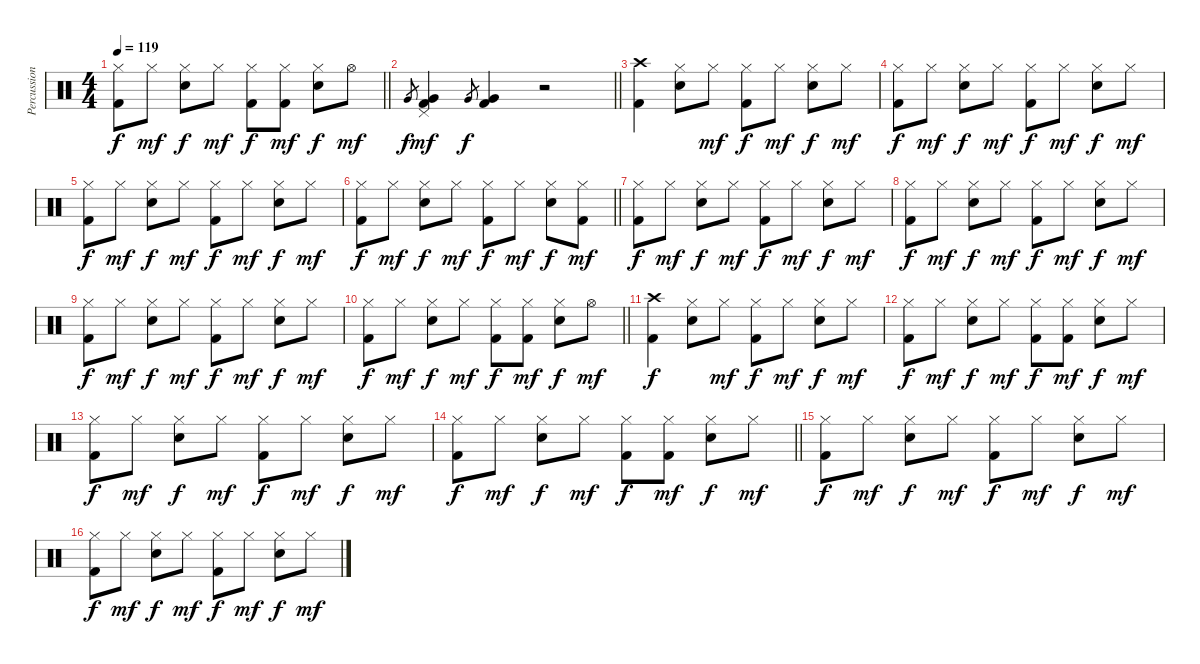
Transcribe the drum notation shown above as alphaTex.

\track ("Percussion" "Percussion") {instrument percussion}
\staff {score}
\articulation defaults
\ts (4 4)
\tempo 119
\clef neutral
\barLineRight lightlight
\ks c
("Hi-Hat (closed)" "Kick (hit) 2").8{dy f} "Hi-Hat (closed)".8{dy mf} ("Hi-Hat (closed)" "Snare (hit) 2").8{dy f} "Hi-Hat (closed)".8{dy mf} ("Hi-Hat (closed)" "Kick (hit) 2").8{dy f} ("Hi-Hat (closed)" "Kick (hit) 2").8{dy mf} ("Hi-Hat (closed)" "Snare (hit) 2").8{dy f} "Hi-Hat (open)".8{dy mf} |
\barLineRight lightlight "Very Low Tom (hit)".8{gr dy f}
("Pedal Hi-Hat (hit)" "Very Low Tom (hit)" "Kick (hit) 2").4{dy mf} "Very Low Tom (hit)".8{gr dy f} ("Very Low Tom (hit)" "Kick (hit) 2").4 r.2 |
("Crash high (hit)" "Kick (hit) 2").4 ("Hi-Hat (closed)" "Snare (hit) 2").8 "Hi-Hat (closed)".8{dy mf} ("Hi-Hat (closed)" "Kick (hit) 2").8{dy f} "Hi-Hat (closed)".8{dy mf} ("Hi-Hat (closed)" "Snare (hit) 2").8{dy f} "Hi-Hat (closed)".8{dy mf} |
("Hi-Hat (closed)" "Kick (hit) 2").8{dy f} "Hi-Hat (closed)".8{dy mf} ("Hi-Hat (closed)" "Snare (hit) 2").8{dy f} "Hi-Hat (closed)".8{dy mf} ("Hi-Hat (closed)" "Kick (hit) 2").8{dy f} "Hi-Hat (closed)".8{dy mf} ("Hi-Hat (closed)" "Snare (hit) 2").8{dy f} "Hi-Hat (closed)".8{dy mf} |
("Hi-Hat (closed)" "Kick (hit) 2").8{dy f} "Hi-Hat (closed)".8{dy mf} ("Hi-Hat (closed)" "Snare (hit) 2").8{dy f} "Hi-Hat (closed)".8{dy mf} ("Hi-Hat (closed)" "Kick (hit) 2").8{dy f} "Hi-Hat (closed)".8{dy mf} ("Hi-Hat (closed)" "Snare (hit) 2").8{dy f} "Hi-Hat (closed)".8{dy mf} |
\barLineRight lightlight
("Hi-Hat (closed)" "Kick (hit) 2").8{dy f} "Hi-Hat (closed)".8{dy mf} ("Hi-Hat (closed)" "Snare (hit) 2").8{dy f} "Hi-Hat (closed)".8{dy mf} ("Hi-Hat (closed)" "Kick (hit) 2").8{dy f} "Hi-Hat (closed)".8{dy mf} ("Hi-Hat (closed)" "Snare (hit) 2").8{dy f} ("Hi-Hat (closed)" "Kick (hit) 2").8{dy mf} |
("Hi-Hat (closed)" "Kick (hit) 2").8{dy f} "Hi-Hat (closed)".8{dy mf} ("Hi-Hat (closed)" "Snare (hit) 2").8{dy f} "Hi-Hat (closed)".8{dy mf} ("Hi-Hat (closed)" "Kick (hit) 2").8{dy f} "Hi-Hat (closed)".8{dy mf} ("Hi-Hat (closed)" "Snare (hit) 2").8{dy f} "Hi-Hat (closed)".8{dy mf} |
("Hi-Hat (closed)" "Kick (hit) 2").8{dy f} "Hi-Hat (closed)".8{dy mf} ("Hi-Hat (closed)" "Snare (hit) 2").8{dy f} "Hi-Hat (closed)".8{dy mf} ("Hi-Hat (closed)" "Kick (hit) 2").8{dy f} "Hi-Hat (closed)".8{dy mf} ("Hi-Hat (closed)" "Snare (hit) 2").8{dy f} "Hi-Hat (closed)".8{dy mf} |
("Hi-Hat (closed)" "Kick (hit) 2").8{dy f} "Hi-Hat (closed)".8{dy mf} ("Hi-Hat (closed)" "Snare (hit) 2").8{dy f} "Hi-Hat (closed)".8{dy mf} ("Hi-Hat (closed)" "Kick (hit) 2").8{dy f} "Hi-Hat (closed)".8{dy mf} ("Hi-Hat (closed)" "Snare (hit) 2").8{dy f} "Hi-Hat (closed)".8{dy mf} |
\barLineRight lightlight
("Hi-Hat (closed)" "Kick (hit) 2").8{dy f} "Hi-Hat (closed)".8{dy mf} ("Hi-Hat (closed)" "Snare (hit) 2").8{dy f} "Hi-Hat (closed)".8{dy mf} ("Hi-Hat (closed)" "Kick (hit) 2").8{dy f} ("Hi-Hat (closed)" "Kick (hit) 2").8{dy mf} ("Hi-Hat (closed)" "Snare (hit) 2").8{dy f} "Hi-Hat (open)".8{dy mf} |
("Crash high (hit)" "Kick (hit) 2").4{dy f} ("Hi-Hat (closed)" "Snare (hit) 2").8 "Hi-Hat (closed)".8{dy mf} ("Hi-Hat (closed)" "Kick (hit) 2").8{dy f} "Hi-Hat (closed)".8{dy mf} ("Hi-Hat (closed)" "Snare (hit) 2").8{dy f} "Hi-Hat (closed)".8{dy mf} |
("Hi-Hat (closed)" "Kick (hit) 2").8{dy f} "Hi-Hat (closed)".8{dy mf} ("Hi-Hat (closed)" "Snare (hit) 2").8{dy f} "Hi-Hat (closed)".8{dy mf} ("Hi-Hat (closed)" "Kick (hit) 2").8{dy f} ("Hi-Hat (closed)" "Kick (hit) 2").8{dy mf} ("Hi-Hat (closed)" "Snare (hit) 2").8{dy f} "Hi-Hat (closed)".8{dy mf} |
("Hi-Hat (closed)" "Kick (hit) 2").8{dy f} "Hi-Hat (closed)".8{dy mf} ("Hi-Hat (closed)" "Snare (hit) 2").8{dy f} "Hi-Hat (closed)".8{dy mf} ("Hi-Hat (closed)" "Kick (hit) 2").8{dy f} "Hi-Hat (closed)".8{dy mf} ("Hi-Hat (closed)" "Snare (hit) 2").8{dy f} "Hi-Hat (closed)".8{dy mf} |
\barLineRight lightlight
("Hi-Hat (closed)" "Kick (hit) 2").8{dy f} "Hi-Hat (closed)".8{dy mf} ("Hi-Hat (closed)" "Snare (hit) 2").8{dy f} "Hi-Hat (closed)".8{dy mf} ("Hi-Hat (closed)" "Kick (hit) 2").8{dy f} ("Hi-Hat (closed)" "Kick (hit) 2").8{dy mf} ("Hi-Hat (closed)" "Snare (hit) 2").8{dy f} "Hi-Hat (closed)".8{dy mf} |
("Hi-Hat (closed)" "Kick (hit) 2").8{dy f} "Hi-Hat (closed)".8{dy mf} ("Hi-Hat (closed)" "Snare (hit) 2").8{dy f} "Hi-Hat (closed)".8{dy mf} ("Hi-Hat (closed)" "Kick (hit) 2").8{dy f} "Hi-Hat (closed)".8{dy mf} ("Hi-Hat (closed)" "Snare (hit) 2").8{dy f} "Hi-Hat (closed)".8{dy mf} |
("Hi-Hat (closed)" "Kick (hit) 2").8{dy f} "Hi-Hat (closed)".8{dy mf} ("Hi-Hat (closed)" "Snare (hit) 2").8{dy f} "Hi-Hat (closed)".8{dy mf} ("Hi-Hat (closed)" "Kick (hit) 2").8{dy f} "Hi-Hat (closed)".8{dy mf} ("Hi-Hat (closed)" "Snare (hit) 2").8{dy f} "Hi-Hat (closed)".8{dy mf}
